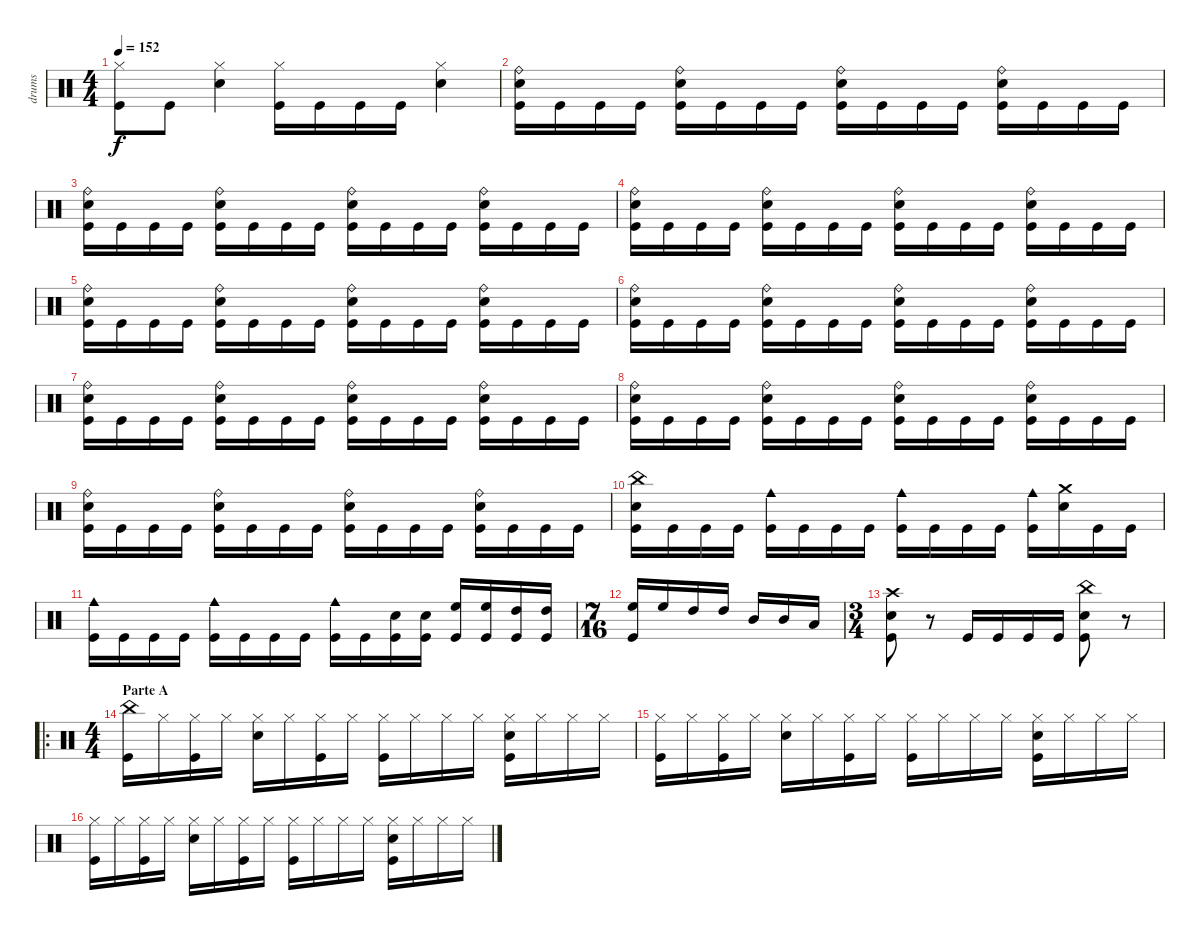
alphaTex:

\track ("drums" "drums") {instrument percussion}
\staff {score}
\articulation defaults
\ts (4 4)
\tempo 152
\clef neutral
\ks c
("Kick (hit)" "Hi-Hat (closed)").8{dy f} "Kick (hit)".8 ("Snare (hit) 2" "Hi-Hat (closed)").4 ("Kick (hit)" "Hi-Hat (closed)").16 "Kick (hit)".16 "Kick (hit)".16 "Kick (hit)".16 ("Snare (hit) 2" "Hi-Hat (closed)").4 |
("Kick (hit)" "Snare (hit) 2" "Ride (bell)").16 "Kick (hit)".16 "Kick (hit)".16 "Kick (hit)".16 ("Kick (hit)" "Snare (hit) 2" "Ride (bell)").16 "Kick (hit)".16 "Kick (hit)".16 "Kick (hit)".16 ("Kick (hit)" "Snare (hit) 2" "Ride (bell)").16 "Kick (hit)".16 "Kick (hit)".16 "Kick (hit)".16 ("Kick (hit)" "Snare (hit) 2" "Ride (bell)").16 "Kick (hit)".16 "Kick (hit)".16 "Kick (hit)".16 |
("Kick (hit)" "Snare (hit) 2" "Ride (bell)").16 "Kick (hit)".16 "Kick (hit)".16 "Kick (hit)".16 ("Kick (hit)" "Snare (hit) 2" "Ride (bell)").16 "Kick (hit)".16 "Kick (hit)".16 "Kick (hit)".16 ("Kick (hit)" "Snare (hit) 2" "Ride (bell)").16 "Kick (hit)".16 "Kick (hit)".16 "Kick (hit)".16 ("Kick (hit)" "Snare (hit) 2" "Ride (bell)").16 "Kick (hit)".16 "Kick (hit)".16 "Kick (hit)".16 |
("Kick (hit)" "Snare (hit) 2" "Ride (bell)").16 "Kick (hit)".16 "Kick (hit)".16 "Kick (hit)".16 ("Kick (hit)" "Snare (hit) 2" "Ride (bell)").16 "Kick (hit)".16 "Kick (hit)".16 "Kick (hit)".16 ("Kick (hit)" "Snare (hit) 2" "Ride (bell)").16 "Kick (hit)".16 "Kick (hit)".16 "Kick (hit)".16 ("Kick (hit)" "Snare (hit) 2" "Ride (bell)").16 "Kick (hit)".16 "Kick (hit)".16 "Kick (hit)".16 |
("Kick (hit)" "Snare (hit) 2" "Ride (bell)").16 "Kick (hit)".16 "Kick (hit)".16 "Kick (hit)".16 ("Kick (hit)" "Snare (hit) 2" "Ride (bell)").16 "Kick (hit)".16 "Kick (hit)".16 "Kick (hit)".16 ("Kick (hit)" "Snare (hit) 2" "Ride (bell)").16 "Kick (hit)".16 "Kick (hit)".16 "Kick (hit)".16 ("Kick (hit)" "Snare (hit) 2" "Ride (bell)").16 "Kick (hit)".16 "Kick (hit)".16 "Kick (hit)".16 |
("Kick (hit)" "Snare (hit) 2" "Ride (bell)").16 "Kick (hit)".16 "Kick (hit)".16 "Kick (hit)".16 ("Kick (hit)" "Snare (hit) 2" "Ride (bell)").16 "Kick (hit)".16 "Kick (hit)".16 "Kick (hit)".16 ("Kick (hit)" "Snare (hit) 2" "Ride (bell)").16 "Kick (hit)".16 "Kick (hit)".16 "Kick (hit)".16 ("Kick (hit)" "Snare (hit) 2" "Ride (bell)").16 "Kick (hit)".16 "Kick (hit)".16 "Kick (hit)".16 |
("Kick (hit)" "Snare (hit) 2" "Ride (bell)").16 "Kick (hit)".16 "Kick (hit)".16 "Kick (hit)".16 ("Kick (hit)" "Snare (hit) 2" "Ride (bell)").16 "Kick (hit)".16 "Kick (hit)".16 "Kick (hit)".16 ("Kick (hit)" "Snare (hit) 2" "Ride (bell)").16 "Kick (hit)".16 "Kick (hit)".16 "Kick (hit)".16 ("Kick (hit)" "Snare (hit) 2" "Ride (bell)").16 "Kick (hit)".16 "Kick (hit)".16 "Kick (hit)".16 |
("Kick (hit)" "Snare (hit) 2" "Ride (bell)").16 "Kick (hit)".16 "Kick (hit)".16 "Kick (hit)".16 ("Kick (hit)" "Snare (hit) 2" "Ride (bell)").16 "Kick (hit)".16 "Kick (hit)".16 "Kick (hit)".16 ("Kick (hit)" "Snare (hit) 2" "Ride (bell)").16 "Kick (hit)".16 "Kick (hit)".16 "Kick (hit)".16 ("Kick (hit)" "Snare (hit) 2" "Ride (bell)").16 "Kick (hit)".16 "Kick (hit)".16 "Kick (hit)".16 |
("Kick (hit)" "Snare (hit) 2" "Ride (bell)").16 "Kick (hit)".16 "Kick (hit)".16 "Kick (hit)".16 ("Kick (hit)" "Snare (hit) 2" "Ride (bell)").16 "Kick (hit)".16 "Kick (hit)".16 "Kick (hit)".16 ("Kick (hit)" "Snare (hit) 2" "Ride (bell)").16 "Kick (hit)".16 "Kick (hit)".16 "Kick (hit)".16 ("Kick (hit)" "Snare (hit) 2" "Ride (bell)").16 "Kick (hit)".16 "Kick (hit)".16 "Kick (hit)".16 |
("Kick (hit)" "Snare (hit) 2" "China (hit)").16 "Kick (hit)".16 "Kick (hit)".16 "Kick (hit)".16 ("Kick (hit)" "Cowbell medium (hit)").16 "Kick (hit)".16 "Kick (hit)".16 "Kick (hit)".16 ("Kick (hit)" "Cowbell medium (hit)").16 "Kick (hit)".16 "Kick (hit)".16 "Kick (hit)".16 ("Kick (hit)" "Cowbell medium (hit)").16 ("Snare (hit) 2" "Crash medium (hit)").16 "Kick (hit)".16 "Kick (hit)".16 |
("Kick (hit)" "Cowbell medium (hit)").16 "Kick (hit)".16 "Kick (hit)".16 "Kick (hit)".16 ("Kick (hit)" "Cowbell medium (hit)").16 "Kick (hit)".16 "Kick (hit)".16 "Kick (hit)".16 ("Kick (hit)" "Cowbell medium (hit)").16 "Kick (hit)".16 ("Kick (hit)" "Snare (hit) 2").16 ("Kick (hit)" "Snare (hit) 2").16 ("Kick (hit)" "High Floor Tom (hit)").16 ("Kick (hit)" "High Floor Tom (hit)").16 ("Kick (hit)" "High Tom (hit)").16 ("Kick (hit)" "High Tom (hit)").16 |
\ts (7 16)
("Kick (hit)" "High Floor Tom (hit)").16 "High Floor Tom (hit)".16 "High Tom (hit)".16 "High Tom (hit)".16 "Mid Tom (hit)".16 "Mid Tom (hit)".16 "Low Tom (hit)".16 |
\ts (3 4)
("Kick (hit)" "Snare (hit) 2" "Crash high (hit)").8 r.8 "Kick (hit)".16 "Kick (hit)".16 "Kick (hit)".16 "Kick (hit)".16 ("Kick (hit)" "Snare (hit) 2" "China (hit)").8 r.8 |
\ro
\ts (4 4)
\section ("" "Parte A")
("Kick (hit)" "China (hit)").16 "Hi-Hat (closed)".16 ("Kick (hit)" "Hi-Hat (closed)").16 "Hi-Hat (closed)".16 ("Snare (hit) 2" "Hi-Hat (closed)").16 "Hi-Hat (closed)".16 ("Kick (hit)" "Hi-Hat (closed)").16 "Hi-Hat (closed)".16 ("Kick (hit)" "Hi-Hat (closed)").16 "Hi-Hat (closed)".16 "Hi-Hat (closed)".16 "Hi-Hat (closed)".16 ("Kick (hit)" "Snare (hit) 2" "Hi-Hat (closed)").16 "Hi-Hat (closed)".16 "Hi-Hat (closed)".16 "Hi-Hat (closed)".16 |
("Kick (hit)" "Hi-Hat (closed)").16 "Hi-Hat (closed)".16 ("Kick (hit)" "Hi-Hat (closed)").16 "Hi-Hat (closed)".16 ("Snare (hit) 2" "Hi-Hat (closed)").16 "Hi-Hat (closed)".16 ("Kick (hit)" "Hi-Hat (closed)").16 "Hi-Hat (closed)".16 ("Kick (hit)" "Hi-Hat (closed)").16 "Hi-Hat (closed)".16 "Hi-Hat (closed)".16 "Hi-Hat (closed)".16 ("Kick (hit)" "Snare (hit) 2" "Hi-Hat (closed)").16 "Hi-Hat (closed)".16 "Hi-Hat (closed)".16 "Hi-Hat (closed)".16 |
("Kick (hit)" "Hi-Hat (closed)").16 "Hi-Hat (closed)".16 ("Kick (hit)" "Hi-Hat (closed)").16 "Hi-Hat (closed)".16 ("Snare (hit) 2" "Hi-Hat (closed)").16 "Hi-Hat (closed)".16 ("Kick (hit)" "Hi-Hat (closed)").16 "Hi-Hat (closed)".16 ("Kick (hit)" "Hi-Hat (closed)").16 "Hi-Hat (closed)".16 "Hi-Hat (closed)".16 "Hi-Hat (closed)".16 ("Kick (hit)" "Snare (hit) 2" "Hi-Hat (closed)").16 "Hi-Hat (closed)".16 "Hi-Hat (closed)".16 "Hi-Hat (closed)".16
